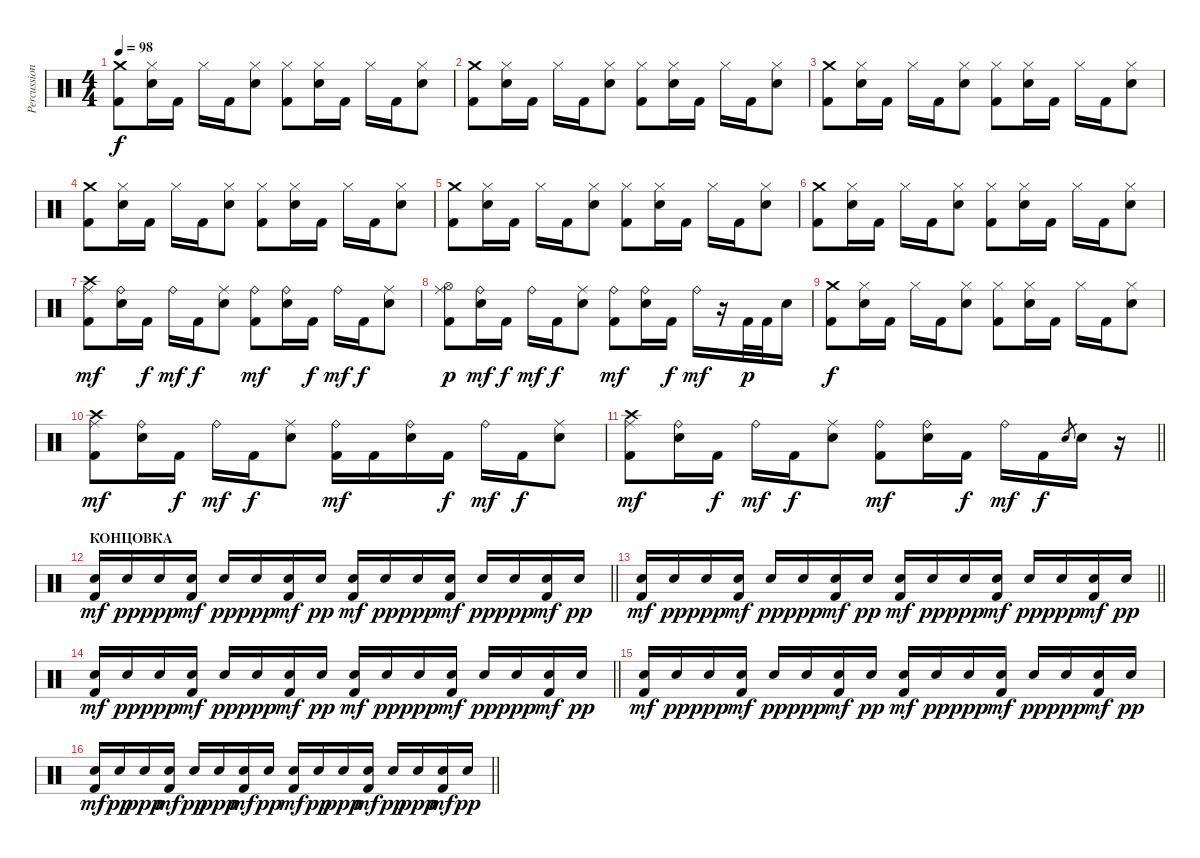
\track ("Percussion" "Percussion") {instrument percussion}
\staff {score}
\articulation defaults
\ts (4 4)
\tempo 98
\clef neutral
\ks c
("Crash medium (hit)" "Kick (hit) 2").8{dy f} ("Hi-Hat (closed)" "Electric Snare (hit)").16 "Kick (hit) 2".16 "Hi-Hat (closed)".16 "Kick (hit) 2".16 ("Hi-Hat (closed)" "Electric Snare (hit)").8 ("Hi-Hat (closed)" "Kick (hit) 2").8 ("Hi-Hat (closed)" "Electric Snare (hit)").16 "Kick (hit) 2".16 "Hi-Hat (closed)".16 "Kick (hit) 2".16 ("Hi-Hat (closed)" "Electric Snare (hit)").8 |
("Crash medium (hit)" "Kick (hit) 2").8 ("Hi-Hat (closed)" "Electric Snare (hit)").16 "Kick (hit) 2".16 "Hi-Hat (closed)".16 "Kick (hit) 2".16 ("Hi-Hat (closed)" "Electric Snare (hit)").8 ("Hi-Hat (closed)" "Kick (hit) 2").8 ("Hi-Hat (closed)" "Electric Snare (hit)").16 "Kick (hit) 2".16 "Hi-Hat (closed)".16 "Kick (hit) 2".16 ("Hi-Hat (closed)" "Electric Snare (hit)").8 |
("Crash medium (hit)" "Kick (hit) 2").8 ("Hi-Hat (closed)" "Electric Snare (hit)").16 "Kick (hit) 2".16 "Hi-Hat (closed)".16 "Kick (hit) 2".16 ("Hi-Hat (closed)" "Electric Snare (hit)").8 ("Hi-Hat (closed)" "Kick (hit) 2").8 ("Hi-Hat (closed)" "Electric Snare (hit)").16 "Kick (hit) 2".16 "Hi-Hat (closed)".16 "Kick (hit) 2".16 ("Hi-Hat (closed)" "Electric Snare (hit)").8 |
("Crash medium (hit)" "Kick (hit) 2").8 ("Hi-Hat (closed)" "Electric Snare (hit)").16 "Kick (hit) 2".16 "Hi-Hat (closed)".16 "Kick (hit) 2".16 ("Hi-Hat (closed)" "Electric Snare (hit)").8 ("Hi-Hat (closed)" "Kick (hit) 2").8 ("Hi-Hat (closed)" "Electric Snare (hit)").16 "Kick (hit) 2".16 "Hi-Hat (closed)".16 "Kick (hit) 2".16 ("Hi-Hat (closed)" "Electric Snare (hit)").8 |
("Crash medium (hit)" "Kick (hit) 2").8 ("Hi-Hat (closed)" "Electric Snare (hit)").16 "Kick (hit) 2".16 "Hi-Hat (closed)".16 "Kick (hit) 2".16 ("Hi-Hat (closed)" "Electric Snare (hit)").8 ("Hi-Hat (closed)" "Kick (hit) 2").8 ("Hi-Hat (closed)" "Electric Snare (hit)").16 "Kick (hit) 2".16 "Hi-Hat (closed)".16 "Kick (hit) 2".16 ("Hi-Hat (closed)" "Electric Snare (hit)").8 |
("Crash medium (hit)" "Kick (hit) 2").8 ("Hi-Hat (closed)" "Electric Snare (hit)").16 "Kick (hit) 2".16 "Hi-Hat (closed)".16 "Kick (hit) 2".16 ("Hi-Hat (closed)" "Electric Snare (hit)").8 ("Hi-Hat (closed)" "Kick (hit) 2").8 ("Hi-Hat (closed)" "Electric Snare (hit)").16 "Kick (hit) 2".16 "Hi-Hat (closed)".16 "Kick (hit) 2".16 ("Hi-Hat (closed)" "Electric Snare (hit)").8 |
("Crash high (hit)" "Kick (hit) 2" "Ride (middle)").8{dy mf} ("Ride (bell)" "Electric Snare (hit)").16 "Kick (hit) 2".16{dy f} "Ride (bell)".16{dy mf} "Kick (hit) 2".16{dy f} ("Ride (middle)" "Electric Snare (hit)").8 ("Ride (bell)" "Kick (hit) 2").8{dy mf} ("Ride (bell)" "Electric Snare (hit)").16 "Kick (hit) 2".16{dy f} "Ride (bell)".16{dy mf} "Kick (hit) 2".16{dy f} ("Ride (middle)" "Electric Snare (hit)").8 |
("Kick (hit) 2" "Ride (middle)" "Hi-Hat (open)").8{dy p} ("Ride (bell)" "Electric Snare (hit)").16{dy mf} "Kick (hit) 2".16{dy f} "Ride (bell)".16{dy mf} "Kick (hit) 2".16{dy f} ("Ride (middle)" "Electric Snare (hit)").8 ("Ride (bell)" "Kick (hit) 2").8{dy mf} ("Ride (bell)" "Electric Snare (hit)").16 "Kick (hit) 2".16{dy f} "Ride (bell)".16{dy mf} r.16 "Kick (hit) 2".32{dy p} "Kick (hit) 2".32 "Electric Snare (hit)".16 |
("Crash medium (hit)" "Kick (hit) 2").8{dy f} ("Hi-Hat (closed)" "Electric Snare (hit)").16 "Kick (hit) 2".16 "Hi-Hat (closed)".16 "Kick (hit) 2".16 ("Hi-Hat (closed)" "Electric Snare (hit)").8 ("Hi-Hat (closed)" "Kick (hit) 2").8 ("Hi-Hat (closed)" "Electric Snare (hit)").16 "Kick (hit) 2".16 "Hi-Hat (closed)".16 "Kick (hit) 2".16 ("Hi-Hat (closed)" "Electric Snare (hit)").8 |
("Crash high (hit)" "Kick (hit) 2" "Ride (middle)").8{dy mf} ("Ride (bell)" "Electric Snare (hit)").16 "Kick (hit) 2".16{dy f} "Ride (bell)".16{dy mf} "Kick (hit) 2".16{dy f} ("Ride (middle)" "Electric Snare (hit)").8 ("Ride (bell)" "Kick (hit) 2").16{dy mf} "Kick (hit) 2".16 ("Ride (bell)" "Electric Snare (hit)").16 "Kick (hit) 2".16{dy f} "Ride (bell)".16{dy mf} "Kick (hit) 2".16{dy f} ("Ride (middle)" "Electric Snare (hit)").8 |
\barLineRight lightlight
("Crash high (hit)" "Kick (hit) 2" "Ride (middle)").8{dy mf} ("Ride (bell)" "Electric Snare (hit)").16 "Kick (hit) 2".16{dy f} "Ride (bell)".16{dy mf} "Kick (hit) 2".16{dy f} ("Ride (middle)" "Electric Snare (hit)").8 ("Ride (bell)" "Kick (hit) 2").8{dy mf} ("Ride (bell)" "Electric Snare (hit)").16 "Kick (hit) 2".16{dy f} "Ride (bell)".16{dy mf} "Kick (hit) 2".16{dy f} "Electric Snare (hit)".8{gr} "Electric Snare (hit)".16 r.16 |
\section ("" "КОНЦОВКА")
\barLineRight lightlight
("Snare (hit) 2" "Kick (hit) 2").16{dy mf} "Snare (hit) 2".16{dy pp} "Snare (hit) 2".16{dy ppp} ("Snare (hit) 2" "Kick (hit) 2").16{dy mf} "Snare (hit) 2".16{dy pp} "Snare (hit) 2".16{dy ppp} ("Snare (hit) 2" "Kick (hit) 2").16{dy mf} "Snare (hit) 2".16{dy pp} ("Snare (hit) 2" "Kick (hit) 2").16{dy mf} "Snare (hit) 2".16{dy pp} "Snare (hit) 2".16{dy ppp} ("Snare (hit) 2" "Kick (hit) 2").16{dy mf} "Snare (hit) 2".16{dy pp} "Snare (hit) 2".16{dy ppp} ("Snare (hit) 2" "Kick (hit) 2").16{dy mf} "Snare (hit) 2".16{dy pp} |
\barLineRight lightlight
("Snare (hit) 2" "Kick (hit) 2").16{dy mf} "Snare (hit) 2".16{dy pp} "Snare (hit) 2".16{dy ppp} ("Snare (hit) 2" "Kick (hit) 2").16{dy mf} "Snare (hit) 2".16{dy pp} "Snare (hit) 2".16{dy ppp} ("Snare (hit) 2" "Kick (hit) 2").16{dy mf} "Snare (hit) 2".16{dy pp} ("Snare (hit) 2" "Kick (hit) 2").16{dy mf} "Snare (hit) 2".16{dy pp} "Snare (hit) 2".16{dy ppp} ("Snare (hit) 2" "Kick (hit) 2").16{dy mf} "Snare (hit) 2".16{dy pp} "Snare (hit) 2".16{dy ppp} ("Snare (hit) 2" "Kick (hit) 2").16{dy mf} "Snare (hit) 2".16{dy pp} |
\barLineRight lightlight
("Snare (hit) 2" "Kick (hit) 2").16{dy mf} "Snare (hit) 2".16{dy pp} "Snare (hit) 2".16{dy ppp} ("Snare (hit) 2" "Kick (hit) 2").16{dy mf} "Snare (hit) 2".16{dy pp} "Snare (hit) 2".16{dy ppp} ("Snare (hit) 2" "Kick (hit) 2").16{dy mf} "Snare (hit) 2".16{dy pp} ("Snare (hit) 2" "Kick (hit) 2").16{dy mf} "Snare (hit) 2".16{dy pp} "Snare (hit) 2".16{dy ppp} ("Snare (hit) 2" "Kick (hit) 2").16{dy mf} "Snare (hit) 2".16{dy pp} "Snare (hit) 2".16{dy ppp} ("Snare (hit) 2" "Kick (hit) 2").16{dy mf} "Snare (hit) 2".16{dy pp} |
("Snare (hit) 2" "Kick (hit) 2").16{dy mf} "Snare (hit) 2".16{dy pp} "Snare (hit) 2".16{dy ppp} ("Snare (hit) 2" "Kick (hit) 2").16{dy mf} "Snare (hit) 2".16{dy pp} "Snare (hit) 2".16{dy ppp} ("Snare (hit) 2" "Kick (hit) 2").16{dy mf} "Snare (hit) 2".16{dy pp} ("Snare (hit) 2" "Kick (hit) 2").16{dy mf} "Snare (hit) 2".16{dy pp} "Snare (hit) 2".16{dy ppp} ("Snare (hit) 2" "Kick (hit) 2").16{dy mf} "Snare (hit) 2".16{dy pp} "Snare (hit) 2".16{dy ppp} ("Snare (hit) 2" "Kick (hit) 2").16{dy mf} "Snare (hit) 2".16{dy pp} |
\barLineRight lightlight
("Snare (hit) 2" "Kick (hit) 2").16{dy mf} "Snare (hit) 2".16{dy pp} "Snare (hit) 2".16{dy ppp} ("Snare (hit) 2" "Kick (hit) 2").16{dy mf} "Snare (hit) 2".16{dy pp} "Snare (hit) 2".16{dy ppp} ("Snare (hit) 2" "Kick (hit) 2").16{dy mf} "Snare (hit) 2".16{dy pp} ("Snare (hit) 2" "Kick (hit) 2").16{dy mf} "Snare (hit) 2".16{dy pp} "Snare (hit) 2".16{dy ppp} ("Snare (hit) 2" "Kick (hit) 2").16{dy mf} "Snare (hit) 2".16{dy pp} "Snare (hit) 2".16{dy ppp} ("Snare (hit) 2" "Kick (hit) 2").16{dy mf} "Snare (hit) 2".16{dy pp}
